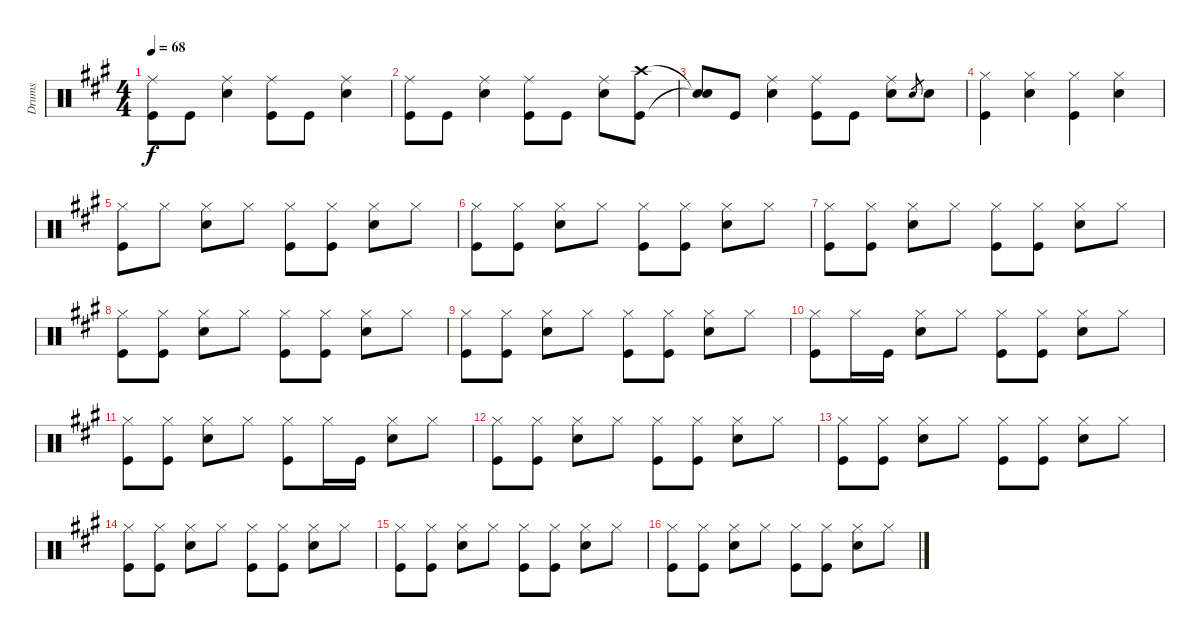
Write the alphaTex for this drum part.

\track ("Drums" "Drums") {instrument percussion}
\staff {score}
\articulation defaults
\ts (4 4)
\tempo 68
\clef neutral
\ks a
("Ride (middle)" "Kick (hit)").8{dy f} "Kick (hit)".8 ("Ride (middle)" "Electric Snare (hit)").4 ("Ride (middle)" "Kick (hit)").8 "Kick (hit)".8 ("Ride (middle)" "Electric Snare (hit)").4 |
("Ride (middle)" "Kick (hit)").8 "Kick (hit)".8 ("Ride (middle)" "Electric Snare (hit)").4 ("Ride (middle)" "Kick (hit)").8 "Kick (hit)".8 ("Ride (middle)" "Electric Snare (hit)").8 ("Crash high (hit)" "Kick (hit)").8 |
("Snare (hit)"{t} "Snare (hit)"{t}).8 "Kick (hit)".8 ("Ride (middle)" "Electric Snare (hit)").4 ("Ride (middle)" "Kick (hit)").8 "Kick (hit)".8 ("Ride (middle)" "Electric Snare (hit)").8 "Electric Snare (hit)".8{gr} "Electric Snare (hit)".8 |
("Hi-Hat (closed)" "Kick (hit)").4 ("Hi-Hat (closed)" "Electric Snare (hit)").4 ("Hi-Hat (closed)" "Kick (hit)").4 ("Hi-Hat (closed)" "Electric Snare (hit)").4 |
("Hi-Hat (closed)" "Kick (hit)").8 "Hi-Hat (closed)".8 ("Hi-Hat (closed)" "Electric Snare (hit)").8 "Hi-Hat (closed)".8 ("Hi-Hat (closed)" "Kick (hit)").8 ("Hi-Hat (closed)" "Kick (hit)").8 ("Hi-Hat (closed)" "Electric Snare (hit)").8 "Hi-Hat (closed)".8 |
("Hi-Hat (closed)" "Kick (hit)").8 ("Hi-Hat (closed)" "Kick (hit)").8 ("Hi-Hat (closed)" "Electric Snare (hit)").8 "Hi-Hat (closed)".8 ("Hi-Hat (closed)" "Kick (hit)").8 ("Hi-Hat (closed)" "Kick (hit)").8 ("Hi-Hat (closed)" "Electric Snare (hit)").8 "Hi-Hat (closed)".8 |
("Hi-Hat (closed)" "Kick (hit)").8 ("Hi-Hat (closed)" "Kick (hit)").8 ("Hi-Hat (closed)" "Electric Snare (hit)").8 "Hi-Hat (closed)".8 ("Hi-Hat (closed)" "Kick (hit)").8 ("Hi-Hat (closed)" "Kick (hit)").8 ("Hi-Hat (closed)" "Electric Snare (hit)").8 "Hi-Hat (closed)".8 |
("Hi-Hat (closed)" "Kick (hit)").8 ("Hi-Hat (closed)" "Kick (hit)").8 ("Hi-Hat (closed)" "Electric Snare (hit)").8 "Hi-Hat (closed)".8 ("Hi-Hat (closed)" "Kick (hit)").8 ("Hi-Hat (closed)" "Kick (hit)").8 ("Hi-Hat (closed)" "Electric Snare (hit)").8 "Hi-Hat (closed)".8 |
("Hi-Hat (closed)" "Kick (hit)").8 ("Hi-Hat (closed)" "Kick (hit)").8 ("Hi-Hat (closed)" "Electric Snare (hit)").8 "Hi-Hat (closed)".8 ("Hi-Hat (closed)" "Kick (hit)").8 ("Hi-Hat (closed)" "Kick (hit)").8 ("Hi-Hat (closed)" "Electric Snare (hit)").8 "Hi-Hat (closed)".8 |
("Hi-Hat (closed)" "Kick (hit)").8 "Hi-Hat (closed)".16 "Kick (hit)".16 ("Hi-Hat (closed)" "Electric Snare (hit)").8 "Hi-Hat (closed)".8 ("Hi-Hat (closed)" "Kick (hit)").8 ("Hi-Hat (closed)" "Kick (hit)").8 ("Hi-Hat (closed)" "Electric Snare (hit)").8 "Hi-Hat (closed)".8 |
("Hi-Hat (closed)" "Kick (hit)").8 ("Hi-Hat (closed)" "Kick (hit)").8 ("Hi-Hat (closed)" "Electric Snare (hit)").8 "Hi-Hat (closed)".8 ("Hi-Hat (closed)" "Kick (hit)").8 "Hi-Hat (closed)".16 "Kick (hit)".16 ("Hi-Hat (closed)" "Electric Snare (hit)").8 "Hi-Hat (closed)".8 |
("Hi-Hat (closed)" "Kick (hit)").8 ("Hi-Hat (closed)" "Kick (hit)").8 ("Hi-Hat (closed)" "Electric Snare (hit)").8 "Hi-Hat (closed)".8 ("Hi-Hat (closed)" "Kick (hit)").8 ("Hi-Hat (closed)" "Kick (hit)").8 ("Hi-Hat (closed)" "Electric Snare (hit)").8 "Hi-Hat (closed)".8 |
("Hi-Hat (closed)" "Kick (hit)").8 ("Hi-Hat (closed)" "Kick (hit)").8 ("Hi-Hat (closed)" "Electric Snare (hit)").8 "Hi-Hat (closed)".8 ("Hi-Hat (closed)" "Kick (hit)").8 ("Hi-Hat (closed)" "Kick (hit)").8 ("Hi-Hat (closed)" "Electric Snare (hit)").8 "Hi-Hat (closed)".8 |
("Hi-Hat (closed)" "Kick (hit)").8 ("Hi-Hat (closed)" "Kick (hit)").8 ("Hi-Hat (closed)" "Electric Snare (hit)").8 "Hi-Hat (closed)".8 ("Hi-Hat (closed)" "Kick (hit)").8 ("Hi-Hat (closed)" "Kick (hit)").8 ("Hi-Hat (closed)" "Electric Snare (hit)").8 "Hi-Hat (closed)".8 |
("Hi-Hat (closed)" "Kick (hit)").8 ("Hi-Hat (closed)" "Kick (hit)").8 ("Hi-Hat (closed)" "Electric Snare (hit)").8 "Hi-Hat (closed)".8 ("Hi-Hat (closed)" "Kick (hit)").8 ("Hi-Hat (closed)" "Kick (hit)").8 ("Hi-Hat (closed)" "Electric Snare (hit)").8 "Hi-Hat (closed)".8 |
("Hi-Hat (closed)" "Kick (hit)").8 ("Hi-Hat (closed)" "Kick (hit)").8 ("Hi-Hat (closed)" "Electric Snare (hit)").8 "Hi-Hat (closed)".8 ("Hi-Hat (closed)" "Kick (hit)").8 ("Hi-Hat (closed)" "Kick (hit)").8 ("Hi-Hat (closed)" "Electric Snare (hit)").8 "Hi-Hat (closed)".8
